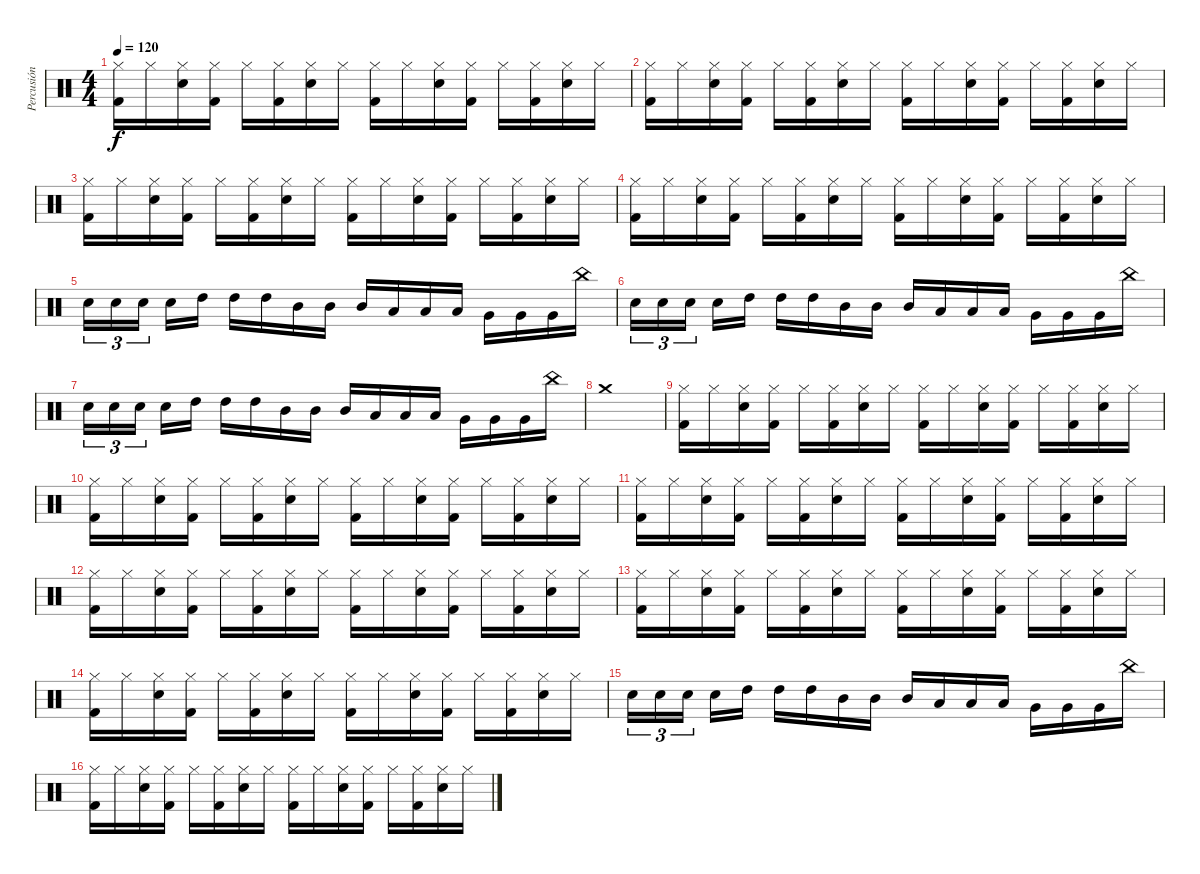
\track ("Percusión" "Percusión") {instrument percussion}
\staff {score}
\articulation defaults
\ts (4 4)
\tempo 120
\clef neutral
\ks c
("Kick (hit) 2" "Hi-Hat (closed)").16{dy f} "Hi-Hat (closed)".16 ("Snare (hit) 2" "Hi-Hat (closed)").16 ("Kick (hit) 2" "Hi-Hat (closed)").16 "Hi-Hat (closed)".16 ("Kick (hit) 2" "Hi-Hat (closed)").16 ("Snare (hit) 2" "Hi-Hat (closed)").16 "Hi-Hat (closed)".16 ("Kick (hit) 2" "Hi-Hat (closed)").16 "Hi-Hat (closed)".16 ("Snare (hit) 2" "Hi-Hat (closed)").16 ("Kick (hit) 2" "Hi-Hat (closed)").16 "Hi-Hat (closed)".16 ("Kick (hit) 2" "Hi-Hat (closed)").16 ("Snare (hit) 2" "Hi-Hat (closed)").16 "Hi-Hat (closed)".16 |
("Kick (hit) 2" "Hi-Hat (closed)").16 "Hi-Hat (closed)".16 ("Snare (hit) 2" "Hi-Hat (closed)").16 ("Kick (hit) 2" "Hi-Hat (closed)").16 "Hi-Hat (closed)".16 ("Kick (hit) 2" "Hi-Hat (closed)").16 ("Snare (hit) 2" "Hi-Hat (closed)").16 "Hi-Hat (closed)".16 ("Kick (hit) 2" "Hi-Hat (closed)").16 "Hi-Hat (closed)".16 ("Snare (hit) 2" "Hi-Hat (closed)").16 ("Kick (hit) 2" "Hi-Hat (closed)").16 "Hi-Hat (closed)".16 ("Kick (hit) 2" "Hi-Hat (closed)").16 ("Snare (hit) 2" "Hi-Hat (closed)").16 "Hi-Hat (closed)".16 |
("Kick (hit) 2" "Hi-Hat (closed)").16 "Hi-Hat (closed)".16 ("Snare (hit) 2" "Hi-Hat (closed)").16 ("Kick (hit) 2" "Hi-Hat (closed)").16 "Hi-Hat (closed)".16 ("Kick (hit) 2" "Hi-Hat (closed)").16 ("Snare (hit) 2" "Hi-Hat (closed)").16 "Hi-Hat (closed)".16 ("Kick (hit) 2" "Hi-Hat (closed)").16 "Hi-Hat (closed)".16 ("Snare (hit) 2" "Hi-Hat (closed)").16 ("Kick (hit) 2" "Hi-Hat (closed)").16 "Hi-Hat (closed)".16 ("Kick (hit) 2" "Hi-Hat (closed)").16 ("Snare (hit) 2" "Hi-Hat (closed)").16 "Hi-Hat (closed)".16 |
("Kick (hit) 2" "Hi-Hat (closed)").16 "Hi-Hat (closed)".16 ("Snare (hit) 2" "Hi-Hat (closed)").16 ("Kick (hit) 2" "Hi-Hat (closed)").16 "Hi-Hat (closed)".16 ("Kick (hit) 2" "Hi-Hat (closed)").16 ("Snare (hit) 2" "Hi-Hat (closed)").16 "Hi-Hat (closed)".16 ("Kick (hit) 2" "Hi-Hat (closed)").16 "Hi-Hat (closed)".16 ("Snare (hit) 2" "Hi-Hat (closed)").16 ("Kick (hit) 2" "Hi-Hat (closed)").16 "Hi-Hat (closed)".16 ("Kick (hit) 2" "Hi-Hat (closed)").16 ("Snare (hit) 2" "Hi-Hat (closed)").16 "Hi-Hat (closed)".16 |
"Electric Snare (hit)".16{tu (3 2)} "Electric Snare (hit)".16{tu (3 2)} "Electric Snare (hit)".16{tu (3 2) beam splitsecondary} "Electric Snare (hit)".16 "High Tom (hit)".16 "High Tom (hit)".16 "High Tom (hit)".16 "Mid Tom (hit)".16 "Mid Tom (hit)".16 "Mid Tom (hit)".16 "Low Tom (hit)".16 "Low Tom (hit)".16 "Low Tom (hit)".16 "Very Low Tom (hit)".16 "Very Low Tom (hit)".16 "Very Low Tom (hit)".16 "China (hit)".16 |
"Electric Snare (hit)".16{tu (3 2)} "Electric Snare (hit)".16{tu (3 2)} "Electric Snare (hit)".16{tu (3 2) beam splitsecondary} "Electric Snare (hit)".16 "High Tom (hit)".16 "High Tom (hit)".16 "High Tom (hit)".16 "Mid Tom (hit)".16 "Mid Tom (hit)".16 "Mid Tom (hit)".16 "Low Tom (hit)".16 "Low Tom (hit)".16 "Low Tom (hit)".16 "Very Low Tom (hit)".16 "Very Low Tom (hit)".16 "Very Low Tom (hit)".16 "China (hit)".16 |
"Electric Snare (hit)".16{tu (3 2)} "Electric Snare (hit)".16{tu (3 2)} "Electric Snare (hit)".16{tu (3 2) beam splitsecondary} "Electric Snare (hit)".16 "High Tom (hit)".16 "High Tom (hit)".16 "High Tom (hit)".16 "Mid Tom (hit)".16 "Mid Tom (hit)".16 "Mid Tom (hit)".16 "Low Tom (hit)".16 "Low Tom (hit)".16 "Low Tom (hit)".16 "Very Low Tom (hit)".16 "Very Low Tom (hit)".16 "Very Low Tom (hit)".16 "China (hit)".16 |
"Crash medium (hit)".1 |
("Kick (hit) 2" "Hi-Hat (closed)").16 "Hi-Hat (closed)".16 ("Snare (hit) 2" "Hi-Hat (closed)").16 ("Kick (hit) 2" "Hi-Hat (closed)").16 "Hi-Hat (closed)".16 ("Kick (hit) 2" "Hi-Hat (closed)").16 ("Snare (hit) 2" "Hi-Hat (closed)").16 "Hi-Hat (closed)".16 ("Kick (hit) 2" "Hi-Hat (closed)").16 "Hi-Hat (closed)".16 ("Snare (hit) 2" "Hi-Hat (closed)").16 ("Kick (hit) 2" "Hi-Hat (closed)").16 "Hi-Hat (closed)".16 ("Kick (hit) 2" "Hi-Hat (closed)").16 ("Snare (hit) 2" "Hi-Hat (closed)").16 "Hi-Hat (closed)".16 |
("Kick (hit) 2" "Hi-Hat (closed)").16 "Hi-Hat (closed)".16 ("Snare (hit) 2" "Hi-Hat (closed)").16 ("Kick (hit) 2" "Hi-Hat (closed)").16 "Hi-Hat (closed)".16 ("Kick (hit) 2" "Hi-Hat (closed)").16 ("Snare (hit) 2" "Hi-Hat (closed)").16 "Hi-Hat (closed)".16 ("Kick (hit) 2" "Hi-Hat (closed)").16 "Hi-Hat (closed)".16 ("Snare (hit) 2" "Hi-Hat (closed)").16 ("Kick (hit) 2" "Hi-Hat (closed)").16 "Hi-Hat (closed)".16 ("Kick (hit) 2" "Hi-Hat (closed)").16 ("Snare (hit) 2" "Hi-Hat (closed)").16 "Hi-Hat (closed)".16 |
("Kick (hit) 2" "Hi-Hat (closed)").16 "Hi-Hat (closed)".16 ("Snare (hit) 2" "Hi-Hat (closed)").16 ("Kick (hit) 2" "Hi-Hat (closed)").16 "Hi-Hat (closed)".16 ("Kick (hit) 2" "Hi-Hat (closed)").16 ("Snare (hit) 2" "Hi-Hat (closed)").16 "Hi-Hat (closed)".16 ("Kick (hit) 2" "Hi-Hat (closed)").16 "Hi-Hat (closed)".16 ("Snare (hit) 2" "Hi-Hat (closed)").16 ("Kick (hit) 2" "Hi-Hat (closed)").16 "Hi-Hat (closed)".16 ("Kick (hit) 2" "Hi-Hat (closed)").16 ("Snare (hit) 2" "Hi-Hat (closed)").16 "Hi-Hat (closed)".16 |
("Kick (hit) 2" "Hi-Hat (closed)").16 "Hi-Hat (closed)".16 ("Snare (hit) 2" "Hi-Hat (closed)").16 ("Kick (hit) 2" "Hi-Hat (closed)").16 "Hi-Hat (closed)".16 ("Kick (hit) 2" "Hi-Hat (closed)").16 ("Snare (hit) 2" "Hi-Hat (closed)").16 "Hi-Hat (closed)".16 ("Kick (hit) 2" "Hi-Hat (closed)").16 "Hi-Hat (closed)".16 ("Snare (hit) 2" "Hi-Hat (closed)").16 ("Kick (hit) 2" "Hi-Hat (closed)").16 "Hi-Hat (closed)".16 ("Kick (hit) 2" "Hi-Hat (closed)").16 ("Snare (hit) 2" "Hi-Hat (closed)").16 "Hi-Hat (closed)".16 |
("Kick (hit) 2" "Hi-Hat (closed)").16 "Hi-Hat (closed)".16 ("Snare (hit) 2" "Hi-Hat (closed)").16 ("Kick (hit) 2" "Hi-Hat (closed)").16 "Hi-Hat (closed)".16 ("Kick (hit) 2" "Hi-Hat (closed)").16 ("Snare (hit) 2" "Hi-Hat (closed)").16 "Hi-Hat (closed)".16 ("Kick (hit) 2" "Hi-Hat (closed)").16 "Hi-Hat (closed)".16 ("Snare (hit) 2" "Hi-Hat (closed)").16 ("Kick (hit) 2" "Hi-Hat (closed)").16 "Hi-Hat (closed)".16 ("Kick (hit) 2" "Hi-Hat (closed)").16 ("Snare (hit) 2" "Hi-Hat (closed)").16 "Hi-Hat (closed)".16 |
("Kick (hit) 2" "Hi-Hat (closed)").16 "Hi-Hat (closed)".16 ("Snare (hit) 2" "Hi-Hat (closed)").16 ("Kick (hit) 2" "Hi-Hat (closed)").16 "Hi-Hat (closed)".16 ("Kick (hit) 2" "Hi-Hat (closed)").16 ("Snare (hit) 2" "Hi-Hat (closed)").16 "Hi-Hat (closed)".16 ("Kick (hit) 2" "Hi-Hat (closed)").16 "Hi-Hat (closed)".16 ("Snare (hit) 2" "Hi-Hat (closed)").16 ("Kick (hit) 2" "Hi-Hat (closed)").16 "Hi-Hat (closed)".16 ("Kick (hit) 2" "Hi-Hat (closed)").16 ("Snare (hit) 2" "Hi-Hat (closed)").16 "Hi-Hat (closed)".16 |
"Electric Snare (hit)".16{tu (3 2)} "Electric Snare (hit)".16{tu (3 2)} "Electric Snare (hit)".16{tu (3 2) beam splitsecondary} "Electric Snare (hit)".16 "High Tom (hit)".16 "High Tom (hit)".16 "High Tom (hit)".16 "Mid Tom (hit)".16 "Mid Tom (hit)".16 "Mid Tom (hit)".16 "Low Tom (hit)".16 "Low Tom (hit)".16 "Low Tom (hit)".16 "Very Low Tom (hit)".16 "Very Low Tom (hit)".16 "Very Low Tom (hit)".16 "China (hit)".16 |
("Kick (hit) 2" "Hi-Hat (closed)").16 "Hi-Hat (closed)".16 ("Snare (hit) 2" "Hi-Hat (closed)").16 ("Kick (hit) 2" "Hi-Hat (closed)").16 "Hi-Hat (closed)".16 ("Kick (hit) 2" "Hi-Hat (closed)").16 ("Snare (hit) 2" "Hi-Hat (closed)").16 "Hi-Hat (closed)".16 ("Kick (hit) 2" "Hi-Hat (closed)").16 "Hi-Hat (closed)".16 ("Snare (hit) 2" "Hi-Hat (closed)").16 ("Kick (hit) 2" "Hi-Hat (closed)").16 "Hi-Hat (closed)".16 ("Kick (hit) 2" "Hi-Hat (closed)").16 ("Snare (hit) 2" "Hi-Hat (closed)").16 "Hi-Hat (closed)".16
